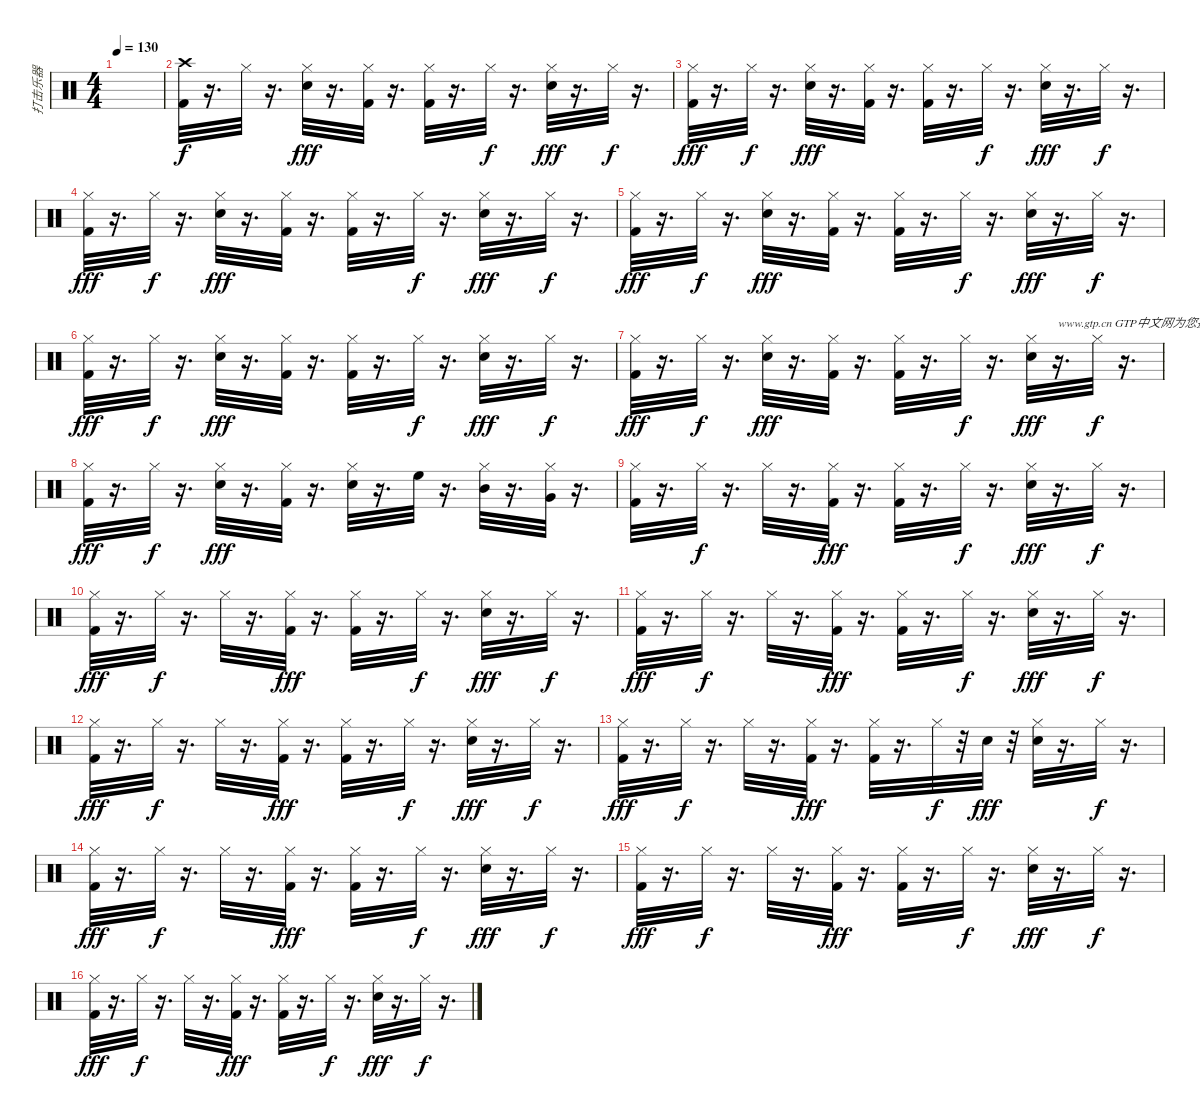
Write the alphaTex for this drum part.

\track ("打击乐器" "打击乐器") {instrument percussion}
\staff {score}
\articulation defaults
\ts (4 4)
\tempo 130
\clef neutral
\ks c
|
("Crash high (hit)" "Kick (hit) 2").32 r.16{d} "Hi-Hat (closed)".32{dy f} r.16{d} ("Hi-Hat (closed)" "Electric Snare (hit)").32{dy fff} r.16{d} ("Kick (hit) 2" "Hi-Hat (closed)").32 r.16{d} ("Kick (hit) 2" "Hi-Hat (closed)").32 r.16{d} "Hi-Hat (closed)".32{dy f} r.16{d} ("Hi-Hat (closed)" "Electric Snare (hit)").32{dy fff} r.16{d} "Hi-Hat (closed)".32{dy f} r.16{d} |
("Kick (hit) 2" "Hi-Hat (closed)").32{dy fff} r.16{d} "Hi-Hat (closed)".32{dy f} r.16{d} ("Hi-Hat (closed)" "Electric Snare (hit)").32{dy fff} r.16{d} ("Kick (hit) 2" "Hi-Hat (closed)").32 r.16{d} ("Kick (hit) 2" "Hi-Hat (closed)").32 r.16{d} "Hi-Hat (closed)".32{dy f} r.16{d} ("Hi-Hat (closed)" "Electric Snare (hit)").32{dy fff} r.16{d} "Hi-Hat (closed)".32{dy f} r.16{d} |
("Kick (hit) 2" "Hi-Hat (closed)").32{dy fff} r.16{d} "Hi-Hat (closed)".32{dy f} r.16{d} ("Hi-Hat (closed)" "Electric Snare (hit)").32{dy fff} r.16{d} ("Kick (hit) 2" "Hi-Hat (closed)").32 r.16{d} ("Kick (hit) 2" "Hi-Hat (closed)").32 r.16{d} "Hi-Hat (closed)".32{dy f} r.16{d} ("Hi-Hat (closed)" "Electric Snare (hit)").32{dy fff} r.16{d} "Hi-Hat (closed)".32{dy f} r.16{d} |
("Kick (hit) 2" "Hi-Hat (closed)").32{dy fff} r.16{d} "Hi-Hat (closed)".32{dy f} r.16{d} ("Hi-Hat (closed)" "Electric Snare (hit)").32{dy fff} r.16{d} ("Kick (hit) 2" "Hi-Hat (closed)").32 r.16{d} ("Kick (hit) 2" "Hi-Hat (closed)").32 r.16{d} "Hi-Hat (closed)".32{dy f} r.16{d} ("Hi-Hat (closed)" "Electric Snare (hit)").32{dy fff} r.16{d} "Hi-Hat (closed)".32{dy f} r.16{d} |
("Kick (hit) 2" "Hi-Hat (closed)").32{dy fff} r.16{d} "Hi-Hat (closed)".32{dy f} r.16{d} ("Hi-Hat (closed)" "Electric Snare (hit)").32{dy fff} r.16{d} ("Kick (hit) 2" "Hi-Hat (closed)").32 r.16{d} ("Kick (hit) 2" "Hi-Hat (closed)").32 r.16{d} "Hi-Hat (closed)".32{dy f} r.16{d} ("Hi-Hat (closed)" "Electric Snare (hit)").32{dy fff} r.16{d} "Hi-Hat (closed)".32{dy f} r.16{d} |
("Kick (hit) 2" "Hi-Hat (closed)").32{dy fff} r.16{d} "Hi-Hat (closed)".32{dy f} r.16{d} ("Hi-Hat (closed)" "Electric Snare (hit)").32{dy fff} r.16{d} ("Kick (hit) 2" "Hi-Hat (closed)").32 r.16{d} ("Kick (hit) 2" "Hi-Hat (closed)").32 r.16{d} "Hi-Hat (closed)".32{dy f} r.16{d} ("Hi-Hat (closed)" "Electric Snare (hit)").32{dy fff} r.16{d txt "www.gtp.cn GTP中文网为您提供优秀的谱子"} "Hi-Hat (closed)".32{dy f} r.16{d} |
("Hi-Hat (closed)" "Kick (hit) 2").32{dy fff} r.16{d} "Hi-Hat (closed)".32{dy f} r.16{d} ("Hi-Hat (closed)" "Electric Snare (hit)").32{dy fff} r.16{d} ("Kick (hit) 2" "Hi-Hat (closed)").32 r.16{d} ("Electric Snare (hit)" "Hi-Hat (closed)").32 r.16{d} "High Floor Tom (hit)".32 r.16{d} ("Hi-Hat (closed)" "Mid Tom (hit)").32 r.16{d} ("Very Low Tom (hit)" "Hi-Hat (closed)").32 r.16{d} |
("Kick (hit) 2" "Hi-Hat (closed)").32 r.16{d} "Hi-Hat (closed)".32{dy f} r.16{d} "Hi-Hat (closed)".32 r.16{d} ("Kick (hit) 2" "Hi-Hat (closed)").32{dy fff} r.16{d} ("Kick (hit) 2" "Hi-Hat (closed)").32 r.16{d} "Hi-Hat (closed)".32{dy f} r.16{d} ("Hi-Hat (closed)" "Electric Snare (hit)").32{dy fff} r.16{d} "Hi-Hat (closed)".32{dy f} r.16{d} |
("Kick (hit) 2" "Hi-Hat (closed)").32{dy fff} r.16{d} "Hi-Hat (closed)".32{dy f} r.16{d} "Hi-Hat (closed)".32 r.16{d} ("Kick (hit) 2" "Hi-Hat (closed)").32{dy fff} r.16{d} ("Kick (hit) 2" "Hi-Hat (closed)").32 r.16{d} "Hi-Hat (closed)".32{dy f} r.16{d} ("Hi-Hat (closed)" "Electric Snare (hit)").32{dy fff} r.16{d} "Hi-Hat (closed)".32{dy f} r.16{d} |
("Kick (hit) 2" "Hi-Hat (closed)").32{dy fff} r.16{d} "Hi-Hat (closed)".32{dy f} r.16{d} "Hi-Hat (closed)".32 r.16{d} ("Kick (hit) 2" "Hi-Hat (closed)").32{dy fff} r.16{d} ("Kick (hit) 2" "Hi-Hat (closed)").32 r.16{d} "Hi-Hat (closed)".32{dy f} r.16{d} ("Hi-Hat (closed)" "Electric Snare (hit)").32{dy fff} r.16{d} "Hi-Hat (closed)".32{dy f} r.16{d} |
("Kick (hit) 2" "Hi-Hat (closed)").32{dy fff} r.16{d} "Hi-Hat (closed)".32{dy f} r.16{d} "Hi-Hat (closed)".32 r.16{d} ("Kick (hit) 2" "Hi-Hat (closed)").32{dy fff} r.16{d} ("Kick (hit) 2" "Hi-Hat (closed)").32 r.16{d} "Hi-Hat (closed)".32{dy f} r.16{d} ("Hi-Hat (closed)" "Electric Snare (hit)").32{dy fff} r.16{d} "Hi-Hat (closed)".32{dy f} r.16{d} |
("Hi-Hat (closed)" "Kick (hit) 2").32{dy fff} r.16{d} "Hi-Hat (closed)".32{dy f} r.16{d} "Hi-Hat (closed)".32 r.16{d} ("Kick (hit) 2" "Hi-Hat (closed)").32{dy fff} r.16{d} ("Kick (hit) 2" "Hi-Hat (closed)").32 r.16{d} "Hi-Hat (closed)".32{dy f} r.32 "Electric Snare (hit)".32{dy fff} r.32 ("Electric Snare (hit)" "Hi-Hat (closed)").32 r.16{d} "Hi-Hat (closed)".32{dy f} r.16{d} |
("Hi-Hat (closed)" "Kick (hit) 2").32{dy fff} r.16{d} "Hi-Hat (closed)".32{dy f} r.16{d} "Hi-Hat (closed)".32 r.16{d} ("Kick (hit) 2" "Hi-Hat (closed)").32{dy fff} r.16{d} ("Kick (hit) 2" "Hi-Hat (closed)").32 r.16{d} "Hi-Hat (closed)".32{dy f} r.16{d} ("Hi-Hat (closed)" "Electric Snare (hit)").32{dy fff} r.16{d} "Hi-Hat (closed)".32{dy f} r.16{d} |
("Hi-Hat (closed)" "Kick (hit) 2").32{dy fff} r.16{d} "Hi-Hat (closed)".32{dy f} r.16{d} "Hi-Hat (closed)".32 r.16{d} ("Kick (hit) 2" "Hi-Hat (closed)").32{dy fff} r.16{d} ("Kick (hit) 2" "Hi-Hat (closed)").32 r.16{d} "Hi-Hat (closed)".32{dy f} r.16{d} ("Hi-Hat (closed)" "Electric Snare (hit)").32{dy fff} r.16{d} "Hi-Hat (closed)".32{dy f} r.16{d} |
("Hi-Hat (closed)" "Kick (hit) 2").32{dy fff} r.16{d} "Hi-Hat (closed)".32{dy f} r.16{d} "Hi-Hat (closed)".32 r.16{d} ("Kick (hit) 2" "Hi-Hat (closed)").32{dy fff} r.16{d} ("Kick (hit) 2" "Hi-Hat (closed)").32 r.16{d} "Hi-Hat (closed)".32{dy f} r.16{d} ("Hi-Hat (closed)" "Electric Snare (hit)").32{dy fff} r.16{d} "Hi-Hat (closed)".32{dy f} r.16{d}
